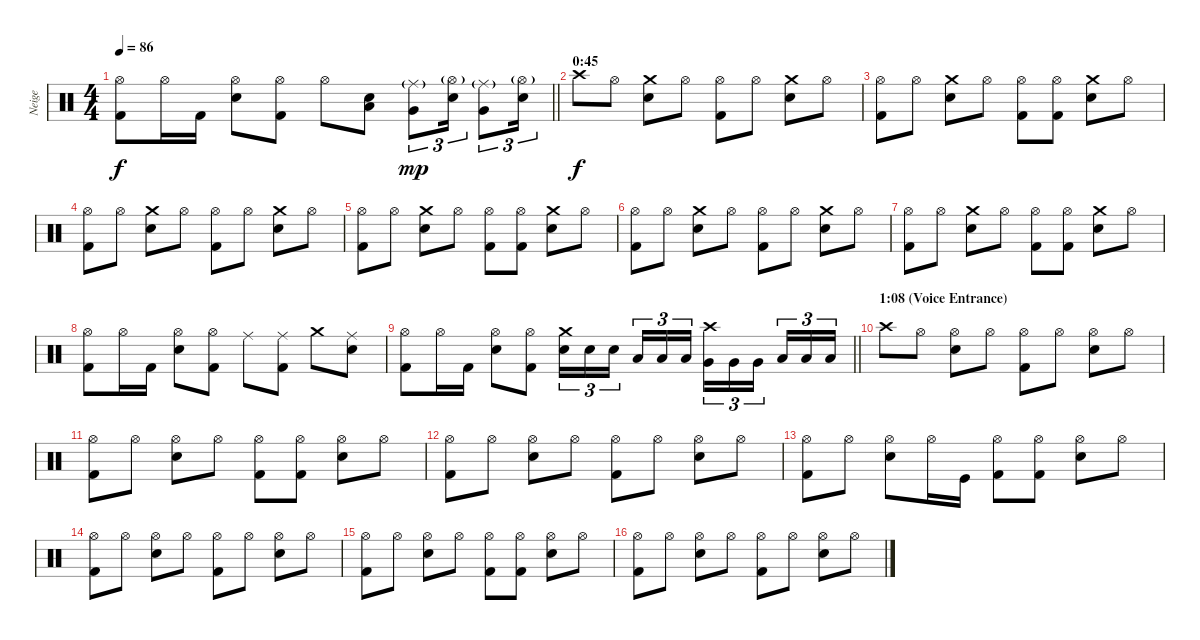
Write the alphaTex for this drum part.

\track ("Neige" "Neige") {instrument percussion}
\staff {score}
\articulation defaults
\ts (4 4)
\tempo 86
\clef neutral
\barLineRight lightlight
\ks c
("Hi-Hat (open)" "Kick (hit) 2").8{dy f} "Hi-Hat (open)".16 "Kick (hit) 2".16 ("Snare (hit) 2" "Hi-Hat (open)").8 ("Hi-Hat (open)" "Kick (hit) 2").8 "Hi-Hat (open)".8 ("Snare (hit) 2" "Low Tom (hit)").8 ("Ride (middle)"{g} "Very Low Tom (hit)").8{tu (3 2) dy mp} ("Snare (hit) 2" "Hi-Hat (open)"{g}).16{tu (3 2)} ("Ride (middle)"{g} "Very Low Tom (hit)").8{tu (3 2)} ("Snare (hit) 2" "Hi-Hat (open)"{g}).16{tu (3 2)} |
\section ("" "0:45")
"Crash high (hit)".8{dy f} "Hi-Hat (open)".8 ("Snare (hit) 2" "Crash medium (hit)").8 "Hi-Hat (open)".8 ("Hi-Hat (open)" "Kick (hit) 2").8 "Hi-Hat (open)".8 ("Snare (hit) 2" "Crash medium (hit)").8 "Hi-Hat (open)".8 |
("Hi-Hat (open)" "Kick (hit) 2").8 "Hi-Hat (open)".8 ("Snare (hit) 2" "Crash medium (hit)").8 "Hi-Hat (open)".8 ("Hi-Hat (open)" "Kick (hit) 2").8 ("Hi-Hat (open)" "Kick (hit) 2").8 ("Snare (hit) 2" "Crash medium (hit)").8 "Hi-Hat (open)".8 |
("Hi-Hat (open)" "Kick (hit) 2").8 "Hi-Hat (open)".8 ("Snare (hit) 2" "Crash medium (hit)").8 "Hi-Hat (open)".8 ("Hi-Hat (open)" "Kick (hit) 2").8 "Hi-Hat (open)".8 ("Snare (hit) 2" "Crash medium (hit)").8 "Hi-Hat (open)".8 |
("Hi-Hat (open)" "Kick (hit) 2").8 "Hi-Hat (open)".8 ("Snare (hit) 2" "Crash medium (hit)").8 "Hi-Hat (open)".8 ("Hi-Hat (open)" "Kick (hit) 2").8 ("Hi-Hat (open)" "Kick (hit) 2").8 ("Snare (hit) 2" "Crash medium (hit)").8 "Hi-Hat (open)".8 |
("Hi-Hat (open)" "Kick (hit) 2").8 "Hi-Hat (open)".8 ("Snare (hit) 2" "Crash medium (hit)").8 "Hi-Hat (open)".8 ("Hi-Hat (open)" "Kick (hit) 2").8 "Hi-Hat (open)".8 ("Snare (hit) 2" "Crash medium (hit)").8 "Hi-Hat (open)".8 |
("Hi-Hat (open)" "Kick (hit) 2").8 "Hi-Hat (open)".8 ("Snare (hit) 2" "Crash medium (hit)").8 "Hi-Hat (open)".8 ("Hi-Hat (open)" "Kick (hit) 2").8 ("Hi-Hat (open)" "Kick (hit) 2").8 ("Snare (hit) 2" "Crash medium (hit)").8 "Hi-Hat (open)".8 |
("Hi-Hat (open)" "Kick (hit) 2").8 "Hi-Hat (open)".16 "Kick (hit) 2".16 ("Snare (hit) 2" "Hi-Hat (open)").8 ("Hi-Hat (open)" "Kick (hit) 2").8 "Ride (middle)".8 ("Ride (middle)" "Kick (hit) 2").8 "Crash medium (hit)".8 ("Snare (hit) 2" "Ride (middle)").8 |
\barLineRight lightlight
("Hi-Hat (open)" "Kick (hit) 2").8 "Hi-Hat (open)".16 "Kick (hit) 2".16 ("Snare (hit) 2" "Hi-Hat (open)").8 ("Hi-Hat (open)" "Kick (hit) 2").8 ("Snare (hit) 2" "Crash medium (hit)").16{tu (3 2)} "Snare (hit) 2".16{tu (3 2)} "Snare (hit) 2".16{tu (3 2) beam splitsecondary} "Low Tom (hit)".16{tu (3 2)} "Low Tom (hit)".16{tu (3 2)} "Low Tom (hit)".16{tu (3 2)} ("Crash high (hit)" "Very Low Tom (hit)").16{tu (3 2)} "Very Low Tom (hit)".16{tu (3 2)} "Very Low Tom (hit)".16{tu (3 2) beam splitsecondary} "Low Floor Tom (hit)".16{tu (3 2)} "Low Floor Tom (hit)".16{tu (3 2)} "Low Floor Tom (hit)".16{tu (3 2)} |
\section ("" "1:08 (Voice Entrance)")
"Crash high (hit)".8 "Hi-Hat (open)".8 ("Snare (hit) 2" "Hi-Hat (open)").8 "Hi-Hat (open)".8 ("Hi-Hat (open)" "Kick (hit) 2").8 "Hi-Hat (open)".8 ("Snare (hit) 2" "Hi-Hat (open)").8 "Hi-Hat (open)".8 |
("Hi-Hat (open)" "Kick (hit) 2").8 "Hi-Hat (open)".8 ("Snare (hit) 2" "Hi-Hat (open)").8 "Hi-Hat (open)".8 ("Hi-Hat (open)" "Kick (hit) 2").8 ("Hi-Hat (open)" "Kick (hit) 2").8 ("Snare (hit) 2" "Hi-Hat (open)").8 "Hi-Hat (open)".8 |
("Hi-Hat (open)" "Kick (hit) 2").8 "Hi-Hat (open)".8 ("Snare (hit) 2" "Hi-Hat (open)").8 "Hi-Hat (open)".8 ("Hi-Hat (open)" "Kick (hit) 2").8 "Hi-Hat (open)".8 ("Snare (hit) 2" "Hi-Hat (open)").8 "Hi-Hat (open)".8 |
("Hi-Hat (open)" "Kick (hit) 2").8 "Hi-Hat (open)".8 ("Snare (hit) 2" "Hi-Hat (open)").8 "Hi-Hat (open)".16 "Kick (hit)".16 ("Hi-Hat (open)" "Kick (hit) 2").8 ("Hi-Hat (open)" "Kick (hit) 2").8 ("Snare (hit) 2" "Hi-Hat (open)").8 "Hi-Hat (open)".8 |
("Hi-Hat (open)" "Kick (hit) 2").8 "Hi-Hat (open)".8 ("Snare (hit) 2" "Hi-Hat (open)").8 "Hi-Hat (open)".8 ("Hi-Hat (open)" "Kick (hit) 2").8 "Hi-Hat (open)".8 ("Snare (hit) 2" "Hi-Hat (open)").8 "Hi-Hat (open)".8 |
("Hi-Hat (open)" "Kick (hit) 2").8 "Hi-Hat (open)".8 ("Snare (hit) 2" "Hi-Hat (open)").8 "Hi-Hat (open)".8 ("Hi-Hat (open)" "Kick (hit) 2").8 ("Hi-Hat (open)" "Kick (hit) 2").8 ("Snare (hit) 2" "Hi-Hat (open)").8 "Hi-Hat (open)".8 |
("Hi-Hat (open)" "Kick (hit) 2").8 "Hi-Hat (open)".8 ("Snare (hit) 2" "Hi-Hat (open)").8 "Hi-Hat (open)".8 ("Hi-Hat (open)" "Kick (hit) 2").8 "Hi-Hat (open)".8 ("Snare (hit) 2" "Hi-Hat (open)").8 "Hi-Hat (open)".8
